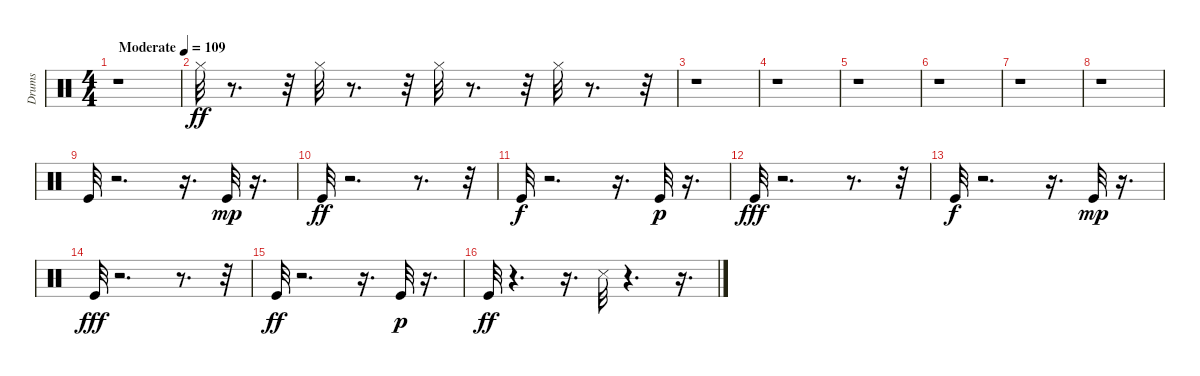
\track ("Drums" "Drums") {instrument percussion}
\staff {score}
\articulation defaults
\ts (4 4)
\tempo (109 "Moderate")
\clef neutral
\ks c
r.1{dy ff} |
"Hi-Hat (closed)".32 r.8{d} r.32 "Hi-Hat (closed)".32 r.8{d} r.32 "Hi-Hat (closed)".32 r.8{d} r.32 "Hi-Hat (closed)".32 r.8{d} r.32 |
r.1 |
r.1 |
r.1 |
r.1 |
r.1 |
r.1 |
"Kick (hit)".32 r.2{d} r.16{d} "Kick (hit)".32{dy mp} r.16{d} |
"Kick (hit)".32{dy ff} r.2{d} r.8{d} r.32 |
"Kick (hit)".32{dy f} r.2{d} r.16{d} "Kick (hit)".32{dy p} r.16{d} |
"Kick (hit)".32{dy fff} r.2{d} r.8{d} r.32 |
"Kick (hit)".32{dy f} r.2{d} r.16{d} "Kick (hit)".32{dy mp} r.16{d} |
"Kick (hit)".32{dy fff} r.2{d} r.8{d} r.32 |
"Kick (hit)".32{dy ff} r.2{d} r.16{d} "Kick (hit)".32{dy p} r.16{d} |
"Kick (hit)".32{dy ff} r.4{d} r.16{d} "Snare (side stick) 3".32 r.4{d} r.16{d}
